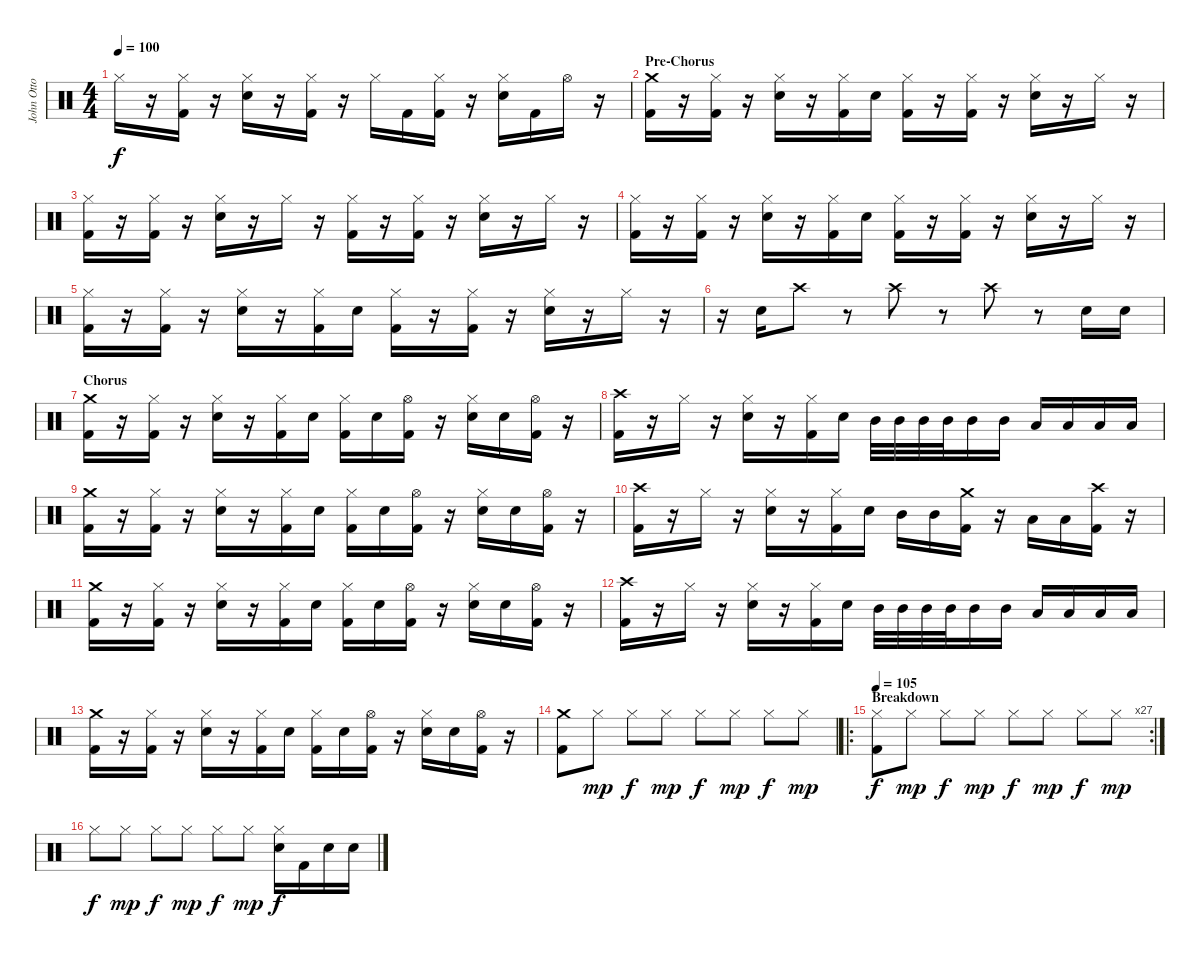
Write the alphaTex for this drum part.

\track ("John Otto - Drums" "John Otto ") {instrument percussion}
\staff {score}
\articulation defaults
\ts (4 4)
\tempo 100
\clef neutral
\ks c "Hi-Hat (closed)".16{dy f}
r.16 ("Hi-Hat (closed)" "Kick (hit) 2").16 r.16 ("Hi-Hat (closed)" "Electric Snare (hit)").16 r.16 ("Hi-Hat (closed)" "Kick (hit) 2").16 r.16 "Hi-Hat (closed)".16 "Kick (hit) 2".16 ("Hi-Hat (closed)" "Kick (hit) 2").16 r.16 ("Hi-Hat (closed)" "Electric Snare (hit)").16 "Kick (hit) 2".16 "Hi-Hat (open)".16 r.16 |
\section ("" "Pre-Chorus")
("Crash medium (hit)" "Kick (hit) 2").16 r.16 ("Hi-Hat (closed)" "Kick (hit) 2").16 r.16 ("Hi-Hat (closed)" "Electric Snare (hit)").16 r.16 ("Hi-Hat (closed)" "Kick (hit) 2").16 "Electric Snare (hit)".16 ("Hi-Hat (closed)" "Kick (hit) 2").16 r.16 ("Hi-Hat (closed)" "Kick (hit) 2").16 r.16 ("Hi-Hat (closed)" "Electric Snare (hit)").16 r.16 "Hi-Hat (closed)".16 r.16 |
("Hi-Hat (closed)" "Kick (hit) 2").16 r.16 ("Hi-Hat (closed)" "Kick (hit) 2").16 r.16 ("Hi-Hat (closed)" "Electric Snare (hit)").16 r.16 "Hi-Hat (closed)".16 r.16 ("Hi-Hat (closed)" "Kick (hit) 2").16 r.16 ("Hi-Hat (closed)" "Kick (hit) 2").16 r.16 ("Hi-Hat (closed)" "Electric Snare (hit)").16 r.16 "Hi-Hat (closed)".16 r.16 |
("Hi-Hat (closed)" "Kick (hit) 2").16 r.16 ("Hi-Hat (closed)" "Kick (hit) 2").16 r.16 ("Hi-Hat (closed)" "Electric Snare (hit)").16 r.16 ("Hi-Hat (closed)" "Kick (hit) 2").16 "Electric Snare (hit)".16 ("Hi-Hat (closed)" "Kick (hit) 2").16 r.16 ("Hi-Hat (closed)" "Kick (hit) 2").16 r.16 ("Hi-Hat (closed)" "Electric Snare (hit)").16 r.16 "Hi-Hat (closed)".16 r.16 |
("Hi-Hat (closed)" "Kick (hit) 2").16 r.16 ("Hi-Hat (closed)" "Kick (hit) 2").16 r.16 ("Hi-Hat (closed)" "Electric Snare (hit)").16 r.16 ("Hi-Hat (closed)" "Kick (hit) 2").16 "Electric Snare (hit)".16 ("Hi-Hat (closed)" "Kick (hit) 2").16 r.16 ("Hi-Hat (closed)" "Kick (hit) 2").16 r.16 ("Hi-Hat (closed)" "Electric Snare (hit)").16 r.16 "Hi-Hat (closed)".16 r.16 |
r.16 "Electric Snare (hit)".16 "Crash high (hit)".8{volume 12} r.8{volume 0} "Crash high (hit)".8{volume 12} r.8{volume 0} "Crash high (hit)".8{volume 12} r.8{volume 0} "Electric Snare (hit)".16{volume 12} "Electric Snare (hit)".16 |
\section ("" "Chorus")
("Crash medium (hit)" "Kick (hit) 2").16 r.16 ("Hi-Hat (closed)" "Kick (hit) 2").16 r.16 ("Hi-Hat (closed)" "Electric Snare (hit)").16 r.16 ("Hi-Hat (closed)" "Kick (hit) 2").16 "Electric Snare (hit)".16 ("Hi-Hat (closed)" "Kick (hit) 2").16 "Electric Snare (hit)".16 ("Hi-Hat (open)" "Kick (hit) 2").16 r.16 ("Hi-Hat (closed)" "Electric Snare (hit)").16 "Electric Snare (hit)".16 ("Hi-Hat (open)" "Kick (hit) 2").16 r.16 |
("Crash high (hit)" "Kick (hit) 2").16 r.16 "Hi-Hat (closed)".16 r.16 ("Hi-Hat (closed)" "Electric Snare (hit)").16 r.16 ("Hi-Hat (closed)" "Kick (hit) 2").16 "Electric Snare (hit)".16 "Mid Tom (hit)".32 "Mid Tom (hit)".32 "Mid Tom (hit)".32 "Mid Tom (hit)".32 "Mid Tom (hit)".16 "Mid Tom (hit)".16 "Low Tom (hit)".16 "Low Tom (hit)".16 "Low Tom (hit)".16 "Low Tom (hit)".16 |
("Crash medium (hit)" "Kick (hit) 2").16 r.16 ("Hi-Hat (closed)" "Kick (hit) 2").16 r.16 ("Hi-Hat (closed)" "Electric Snare (hit)").16 r.16 ("Hi-Hat (closed)" "Kick (hit) 2").16 "Electric Snare (hit)".16 ("Hi-Hat (closed)" "Kick (hit) 2").16 "Electric Snare (hit)".16 ("Hi-Hat (open)" "Kick (hit) 2").16 r.16 ("Hi-Hat (closed)" "Electric Snare (hit)").16 "Electric Snare (hit)".16 ("Hi-Hat (open)" "Kick (hit) 2").16 r.16 |
("Crash high (hit)" "Kick (hit) 2").16 r.16 "Hi-Hat (closed)".16 r.16 ("Hi-Hat (closed)" "Electric Snare (hit)").16 r.16 ("Hi-Hat (closed)" "Kick (hit) 2").16 "Electric Snare (hit)".16 "Mid Tom (hit)".16 "Mid Tom (hit)".16 ("Crash medium (hit)" "Kick (hit) 2").16 r.16 "Low Tom (hit)".16 "Low Tom (hit)".16 ("Crash high (hit)" "Kick (hit) 2").16 r.16 |
("Crash medium (hit)" "Kick (hit) 2").16 r.16 ("Hi-Hat (closed)" "Kick (hit) 2").16 r.16 ("Hi-Hat (closed)" "Electric Snare (hit)").16 r.16 ("Hi-Hat (closed)" "Kick (hit) 2").16 "Electric Snare (hit)".16 ("Hi-Hat (closed)" "Kick (hit) 2").16 "Electric Snare (hit)".16 ("Hi-Hat (open)" "Kick (hit) 2").16 r.16 ("Hi-Hat (closed)" "Electric Snare (hit)").16 "Electric Snare (hit)".16 ("Hi-Hat (open)" "Kick (hit) 2").16 r.16 |
("Crash high (hit)" "Kick (hit) 2").16 r.16 "Hi-Hat (closed)".16 r.16 ("Hi-Hat (closed)" "Electric Snare (hit)").16 r.16 ("Hi-Hat (closed)" "Kick (hit) 2").16 "Electric Snare (hit)".16 "Mid Tom (hit)".32 "Mid Tom (hit)".32 "Mid Tom (hit)".32 "Mid Tom (hit)".32 "Mid Tom (hit)".16 "Mid Tom (hit)".16 "Low Tom (hit)".16 "Low Tom (hit)".16 "Low Tom (hit)".16 "Low Tom (hit)".16 |
("Crash medium (hit)" "Kick (hit) 2").16 r.16 ("Hi-Hat (closed)" "Kick (hit) 2").16 r.16 ("Hi-Hat (closed)" "Electric Snare (hit)").16 r.16 ("Hi-Hat (closed)" "Kick (hit) 2").16 "Electric Snare (hit)".16 ("Hi-Hat (closed)" "Kick (hit) 2").16 "Electric Snare (hit)".16 ("Hi-Hat (open)" "Kick (hit) 2").16 r.16 ("Hi-Hat (closed)" "Electric Snare (hit)").16 "Electric Snare (hit)".16 ("Hi-Hat (open)" "Kick (hit) 2").16 r.16 |
("Crash medium (hit)" "Kick (hit) 2").8 "Hi-Hat (closed)".8{dy mp} "Hi-Hat (closed)".8{dy f} "Hi-Hat (closed)".8{dy mp} "Hi-Hat (closed)".8{dy f} "Hi-Hat (closed)".8{dy mp} "Hi-Hat (closed)".8{dy f} "Hi-Hat (closed)".8{dy mp} |
\ro
\rc 27
\section ("" "Breakdown")
\tempo 105
("Hi-Hat (closed)" "Kick (hit) 2").8{dy f} "Hi-Hat (closed)".8{dy mp} "Hi-Hat (closed)".8{dy f} "Hi-Hat (closed)".8{dy mp} "Hi-Hat (closed)".8{dy f} "Hi-Hat (closed)".8{dy mp} "Hi-Hat (closed)".8{dy f} "Hi-Hat (closed)".8{dy mp} |
"Hi-Hat (closed)".8{dy f} "Hi-Hat (closed)".8{dy mp} "Hi-Hat (closed)".8{dy f} "Hi-Hat (closed)".8{dy mp} "Hi-Hat (closed)".8{dy f} "Hi-Hat (closed)".8{dy mp} ("Hi-Hat (closed)" "Electric Snare (hit)").16{dy f} "Kick (hit) 2".16 "Electric Snare (hit)".16 "Electric Snare (hit)".16
